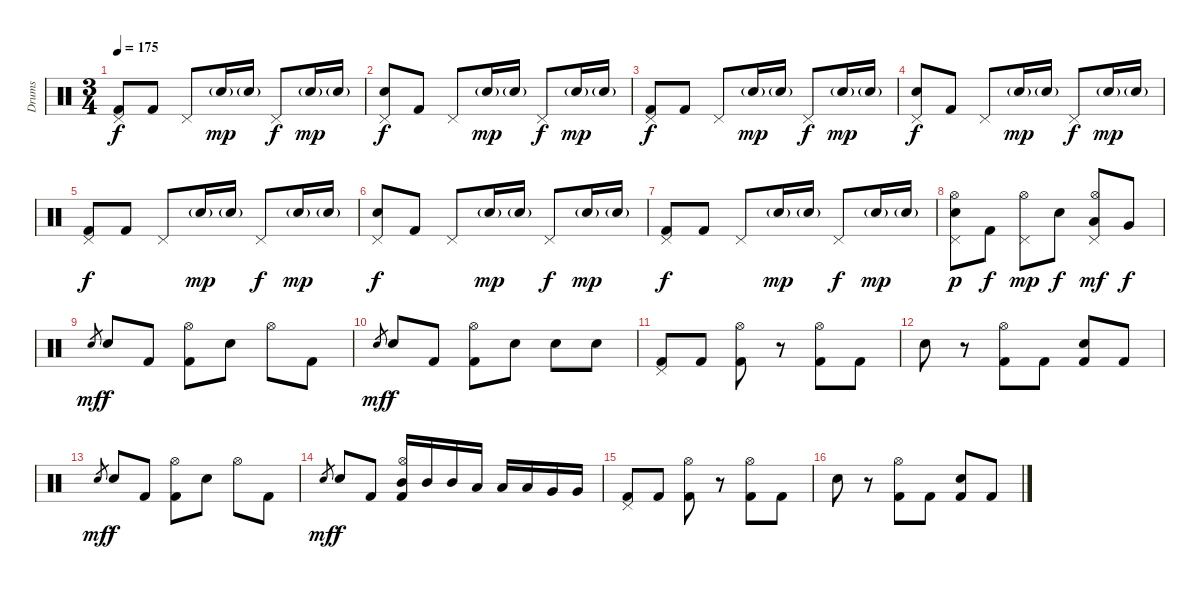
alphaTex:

\track ("Drums" "Drums") {instrument percussion}
\staff {score}
\articulation defaults
\ts (3 4)
\tempo 175
\clef neutral
\ks c
("Pedal Hi-Hat (hit)" "Kick (hit) 2").8{dy f} "Kick (hit) 2".8 "Pedal Hi-Hat (hit)".8 "Electric Snare (hit)"{g}.16{dy mp} "Electric Snare (hit)"{g}.16 "Pedal Hi-Hat (hit)".8{dy f} "Electric Snare (hit)"{g}.16{dy mp} "Electric Snare (hit)"{g}.16 |
("Pedal Hi-Hat (hit)" "Electric Snare (hit)").8{dy f} "Kick (hit) 2".8 "Pedal Hi-Hat (hit)".8 "Electric Snare (hit)"{g}.16{dy mp} "Electric Snare (hit)"{g}.16 "Pedal Hi-Hat (hit)".8{dy f} "Electric Snare (hit)"{g}.16{dy mp} "Electric Snare (hit)"{g}.16 |
("Pedal Hi-Hat (hit)" "Kick (hit) 2").8{dy f} "Kick (hit) 2".8 "Pedal Hi-Hat (hit)".8 "Electric Snare (hit)"{g}.16{dy mp} "Electric Snare (hit)"{g}.16 "Pedal Hi-Hat (hit)".8{dy f} "Electric Snare (hit)"{g}.16{dy mp} "Electric Snare (hit)"{g}.16 |
("Pedal Hi-Hat (hit)" "Electric Snare (hit)").8{dy f} "Kick (hit) 2".8 "Pedal Hi-Hat (hit)".8 "Electric Snare (hit)"{g}.16{dy mp} "Electric Snare (hit)"{g}.16 "Pedal Hi-Hat (hit)".8{dy f} "Electric Snare (hit)"{g}.16{dy mp} "Electric Snare (hit)"{g}.16 |
("Pedal Hi-Hat (hit)" "Kick (hit) 2").8{dy f} "Kick (hit) 2".8 "Pedal Hi-Hat (hit)".8 "Electric Snare (hit)"{g}.16{dy mp} "Electric Snare (hit)"{g}.16 "Pedal Hi-Hat (hit)".8{dy f} "Electric Snare (hit)"{g}.16{dy mp} "Electric Snare (hit)"{g}.16 |
("Pedal Hi-Hat (hit)" "Electric Snare (hit)").8{dy f} "Kick (hit) 2".8 "Pedal Hi-Hat (hit)".8 "Electric Snare (hit)"{g}.16{dy mp} "Electric Snare (hit)"{g}.16 "Pedal Hi-Hat (hit)".8{dy f} "Electric Snare (hit)"{g}.16{dy mp} "Electric Snare (hit)"{g}.16 |
("Pedal Hi-Hat (hit)" "Kick (hit) 2").8{dy f} "Kick (hit) 2".8 "Pedal Hi-Hat (hit)".8 "Electric Snare (hit)"{g}.16{dy mp} "Electric Snare (hit)"{g}.16 "Pedal Hi-Hat (hit)".8{dy f} "Electric Snare (hit)"{g}.16{dy mp} "Electric Snare (hit)"{g}.16 |
("Pedal Hi-Hat (hit)" "Hi-Hat (open)" "Electric Snare (hit)").8{dy p} "Kick (hit) 2".8{dy f} ("Pedal Hi-Hat (hit)" "Hi-Hat (open)").8{dy mp} "Electric Snare (hit)".8{dy f} ("Pedal Hi-Hat (hit)" "Hi-Hat (open)" "Low Tom (hit)").8{dy mf} "Very Low Tom (hit)".8{dy f} |
"Electric Snare (hit)".8{gr dy mf} "Electric Snare (hit)".8{dy f} "Kick (hit) 2".8 ("Hi-Hat (open)" "Kick (hit) 2").8 "Electric Snare (hit)".8 "Hi-Hat (open)".8 "Kick (hit) 2".8 |
"Electric Snare (hit)".8{gr dy mf} "Electric Snare (hit)".8{dy f} "Kick (hit) 2".8 ("Hi-Hat (open)" "Kick (hit) 2").8 "Electric Snare (hit)".8 "Electric Snare (hit)".8 "Electric Snare (hit)".8 |
("Pedal Hi-Hat (hit)" "Kick (hit) 2").8 "Kick (hit) 2".8 ("Hi-Hat (open)" "Kick (hit) 2").8 r.8 ("Hi-Hat (open)" "Kick (hit) 2").8 "Kick (hit) 2".8 |
"Electric Snare (hit)".8 r.8 ("Hi-Hat (open)" "Kick (hit) 2").8 "Kick (hit) 2".8 ("Kick (hit) 2" "Electric Snare (hit)").8 "Kick (hit) 2".8 |
"Electric Snare (hit)".8{gr dy mf} "Electric Snare (hit)".8{dy f} "Kick (hit) 2".8 ("Hi-Hat (open)" "Kick (hit) 2").8 "Electric Snare (hit)".8 "Hi-Hat (open)".8 "Kick (hit) 2".8 |
"Electric Snare (hit)".8{gr dy mf} "Electric Snare (hit)".8{dy f} "Kick (hit) 2".8 ("Hi-Hat (open)" "Mid Tom (hit)" "Kick (hit) 2").16 "Mid Tom (hit)".16 "Mid Tom (hit)".16 "Low Tom (hit)".16 "Low Tom (hit)".16 "Low Tom (hit)".16 "Very Low Tom (hit)".16 "Very Low Tom (hit)".16 |
("Pedal Hi-Hat (hit)" "Kick (hit) 2").8 "Kick (hit) 2".8 ("Hi-Hat (open)" "Kick (hit) 2").8 r.8 ("Hi-Hat (open)" "Kick (hit) 2").8 "Kick (hit) 2".8 |
"Electric Snare (hit)".8 r.8 ("Hi-Hat (open)" "Kick (hit) 2").8 "Kick (hit) 2".8 ("Kick (hit) 2" "Electric Snare (hit)").8 "Kick (hit) 2".8
